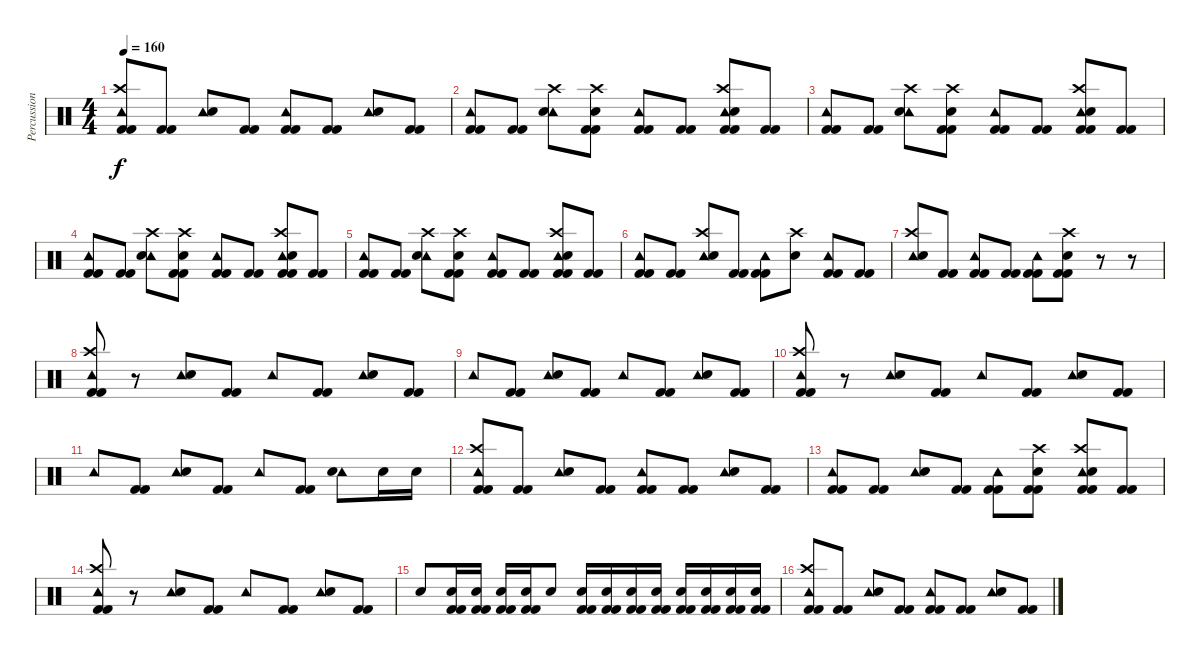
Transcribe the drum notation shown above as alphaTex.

\track ("Percussion" "Percussion") {instrument percussion}
\staff {score}
\articulation defaults
\ts (4 4)
\tempo 160
\clef neutral
\ks c
("Tambourine (hit)" "Crash high (hit)" "Kick (hit) 2" "Kick (hit) 2").8{dy f} ("Kick (hit) 2" "Kick (hit) 2").8 ("Tambourine (hit)" "Electric Snare (hit)").8 ("Kick (hit) 2" "Kick (hit) 2").8 ("Tambourine (hit)" "Kick (hit) 2" "Kick (hit) 2").8 ("Kick (hit) 2" "Kick (hit) 2").8 ("Tambourine (hit)" "Electric Snare (hit)").8 ("Kick (hit) 2" "Kick (hit) 2").8 |
("Tambourine (hit)" "Kick (hit) 2" "Kick (hit) 2").8 ("Kick (hit) 2" "Kick (hit) 2").8 ("Tambourine (hit)" "Crash high (hit)" "Electric Snare (hit)").8 ("Crash high (hit)" "Electric Snare (hit)" "Kick (hit) 2" "Kick (hit) 2").8 ("Tambourine (hit)" "Kick (hit) 2" "Kick (hit) 2").8 ("Kick (hit) 2" "Kick (hit) 2").8 ("Tambourine (hit)" "Crash high (hit)" "Electric Snare (hit)" "Kick (hit) 2" "Kick (hit) 2").8 ("Kick (hit) 2" "Kick (hit) 2").8 |
("Tambourine (hit)" "Kick (hit) 2" "Kick (hit) 2").8 ("Kick (hit) 2" "Kick (hit) 2").8 ("Tambourine (hit)" "Crash high (hit)" "Electric Snare (hit)").8 ("Crash high (hit)" "Electric Snare (hit)" "Kick (hit) 2" "Kick (hit) 2").8 ("Tambourine (hit)" "Kick (hit) 2" "Kick (hit) 2").8 ("Kick (hit) 2" "Kick (hit) 2").8 ("Tambourine (hit)" "Crash high (hit)" "Electric Snare (hit)" "Kick (hit) 2" "Kick (hit) 2").8 ("Kick (hit) 2" "Kick (hit) 2").8 |
("Tambourine (hit)" "Kick (hit) 2" "Kick (hit) 2").8 ("Kick (hit) 2" "Kick (hit) 2").8 ("Tambourine (hit)" "Crash high (hit)" "Electric Snare (hit)").8 ("Crash high (hit)" "Electric Snare (hit)" "Kick (hit) 2" "Kick (hit) 2").8 ("Tambourine (hit)" "Kick (hit) 2" "Kick (hit) 2").8 ("Kick (hit) 2" "Kick (hit) 2").8 ("Tambourine (hit)" "Crash high (hit)" "Electric Snare (hit)" "Kick (hit) 2" "Kick (hit) 2").8 ("Kick (hit) 2" "Kick (hit) 2").8 |
("Tambourine (hit)" "Kick (hit) 2" "Kick (hit) 2").8 ("Kick (hit) 2" "Kick (hit) 2").8 ("Tambourine (hit)" "Crash high (hit)" "Electric Snare (hit)").8 ("Crash high (hit)" "Electric Snare (hit)" "Kick (hit) 2" "Kick (hit) 2").8 ("Tambourine (hit)" "Kick (hit) 2" "Kick (hit) 2").8 ("Kick (hit) 2" "Kick (hit) 2").8 ("Tambourine (hit)" "Crash high (hit)" "Electric Snare (hit)" "Kick (hit) 2" "Kick (hit) 2").8 ("Kick (hit) 2" "Kick (hit) 2").8 |
("Tambourine (hit)" "Kick (hit) 2" "Kick (hit) 2").8 ("Kick (hit) 2" "Kick (hit) 2").8 ("Tambourine (hit)" "Crash high (hit)" "Electric Snare (hit)").8 ("Kick (hit) 2" "Kick (hit) 2").8 ("Tambourine (hit)" "Kick (hit) 2" "Kick (hit) 2").8 ("Crash high (hit)" "Electric Snare (hit)").8 ("Tambourine (hit)" "Kick (hit) 2" "Kick (hit) 2").8 ("Kick (hit) 2" "Kick (hit) 2").8 |
("Tambourine (hit)" "Crash high (hit)" "Electric Snare (hit)").8 ("Kick (hit) 2" "Kick (hit) 2").8 ("Tambourine (hit)" "Kick (hit) 2" "Kick (hit) 2").8 ("Kick (hit) 2" "Kick (hit) 2").8 ("Tambourine (hit)" "Kick (hit) 2" "Kick (hit) 2").8 ("Crash high (hit)" "Electric Snare (hit)" "Kick (hit) 2" "Kick (hit) 2").8 r.8 r.8 |
("Tambourine (hit)" "Crash high (hit)" "Kick (hit) 2" "Kick (hit) 2").8 r.8 ("Tambourine (hit)" "Electric Snare (hit)").8 ("Kick (hit) 2" "Kick (hit) 2").8 "Tambourine (hit)".8 ("Kick (hit) 2" "Kick (hit) 2").8 ("Tambourine (hit)" "Electric Snare (hit)").8 ("Kick (hit) 2" "Kick (hit) 2").8 |
"Tambourine (hit)".8 ("Kick (hit) 2" "Kick (hit) 2").8 ("Tambourine (hit)" "Electric Snare (hit)").8 ("Kick (hit) 2" "Kick (hit) 2").8 "Tambourine (hit)".8 ("Kick (hit) 2" "Kick (hit) 2").8 ("Tambourine (hit)" "Electric Snare (hit)").8 ("Kick (hit) 2" "Kick (hit) 2").8 |
("Tambourine (hit)" "Crash high (hit)" "Kick (hit) 2" "Kick (hit) 2").8 r.8 ("Tambourine (hit)" "Electric Snare (hit)").8 ("Kick (hit) 2" "Kick (hit) 2").8 "Tambourine (hit)".8 ("Kick (hit) 2" "Kick (hit) 2").8 ("Tambourine (hit)" "Electric Snare (hit)").8 ("Kick (hit) 2" "Kick (hit) 2").8 |
"Tambourine (hit)".8 ("Kick (hit) 2" "Kick (hit) 2").8 ("Tambourine (hit)" "Electric Snare (hit)").8 ("Kick (hit) 2" "Kick (hit) 2").8 "Tambourine (hit)".8 ("Kick (hit) 2" "Kick (hit) 2").8 ("Tambourine (hit)" "Electric Snare (hit)").8 "Snare (hit) 2".16 "Snare (hit) 2".16 |
("Tambourine (hit)" "Crash high (hit)" "Kick (hit) 2" "Kick (hit) 2").8 ("Kick (hit) 2" "Kick (hit) 2").8 ("Tambourine (hit)" "Electric Snare (hit)").8 ("Kick (hit) 2" "Kick (hit) 2").8 ("Tambourine (hit)" "Kick (hit) 2" "Kick (hit) 2").8 ("Kick (hit) 2" "Kick (hit) 2").8 ("Tambourine (hit)" "Electric Snare (hit)").8 ("Kick (hit) 2" "Kick (hit) 2").8 |
("Tambourine (hit)" "Kick (hit) 2" "Kick (hit) 2").8 ("Kick (hit) 2" "Kick (hit) 2").8 ("Tambourine (hit)" "Electric Snare (hit)").8 ("Kick (hit) 2" "Kick (hit) 2").8 ("Tambourine (hit)" "Kick (hit) 2" "Kick (hit) 2").8 ("Crash high (hit)" "Electric Snare (hit)" "Kick (hit) 2" "Kick (hit) 2").8 ("Tambourine (hit)" "Crash high (hit)" "Electric Snare (hit)" "Kick (hit) 2" "Kick (hit) 2").8 ("Kick (hit) 2" "Kick (hit) 2").8 |
("Tambourine (hit)" "Crash high (hit)" "Kick (hit) 2" "Kick (hit) 2").8 r.8 ("Tambourine (hit)" "Electric Snare (hit)").8 ("Kick (hit) 2" "Kick (hit) 2").8 "Tambourine (hit)".8 ("Kick (hit) 2" "Kick (hit) 2").8 ("Tambourine (hit)" "Electric Snare (hit)").8 ("Kick (hit) 2" "Kick (hit) 2").8 |
"Electric Snare (hit)".8 ("Electric Snare (hit)" "Kick (hit) 2" "Kick (hit) 2").16 ("Electric Snare (hit)" "Kick (hit) 2" "Kick (hit) 2").16 ("Electric Snare (hit)" "Kick (hit) 2" "Kick (hit) 2").16 ("Electric Snare (hit)" "Kick (hit) 2" "Kick (hit) 2").16 "Electric Snare (hit)".8 ("Electric Snare (hit)" "Kick (hit) 2" "Kick (hit) 2").16 ("Electric Snare (hit)" "Kick (hit) 2" "Kick (hit) 2").16 ("Electric Snare (hit)" "Kick (hit) 2" "Kick (hit) 2").16 ("Electric Snare (hit)" "Kick (hit) 2" "Kick (hit) 2").16 ("Electric Snare (hit)" "Kick (hit) 2" "Kick (hit) 2").16 ("Electric Snare (hit)" "Kick (hit) 2" "Kick (hit) 2").16 ("Electric Snare (hit)" "Kick (hit) 2" "Kick (hit) 2").16 ("Electric Snare (hit)" "Kick (hit) 2" "Kick (hit) 2").16 |
("Tambourine (hit)" "Crash high (hit)" "Kick (hit) 2" "Kick (hit) 2").8 ("Kick (hit) 2" "Kick (hit) 2").8 ("Tambourine (hit)" "Electric Snare (hit)").8 ("Kick (hit) 2" "Kick (hit) 2").8 ("Tambourine (hit)" "Kick (hit) 2" "Kick (hit) 2").8 ("Kick (hit) 2" "Kick (hit) 2").8 ("Tambourine (hit)" "Electric Snare (hit)").8 ("Kick (hit) 2" "Kick (hit) 2").8
